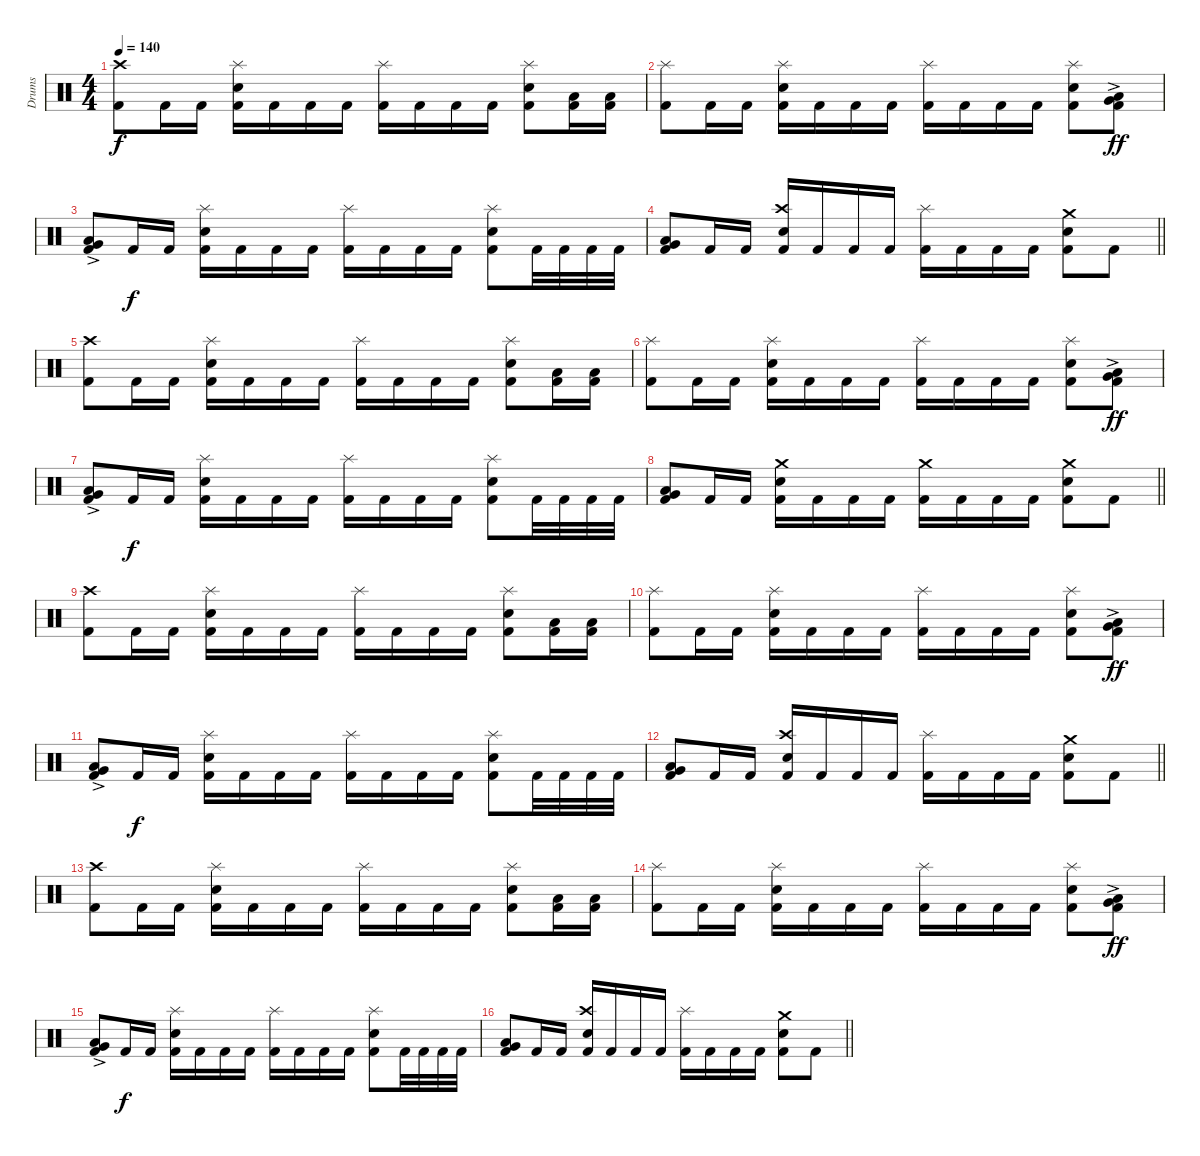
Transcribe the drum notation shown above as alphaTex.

\track ("Drums" "Drums") {instrument percussion}
\staff {score}
\articulation defaults
\ts (4 4)
\section ("" "")
\tempo 140
\clef neutral
\ks c
("Kick (hit) 2" "Crash high (hit)").8{dy f} "Kick (hit) 2".16 "Kick (hit) 2".16 ("Kick (hit) 2" "Snare (hit) 2" "Splash (hit)").16 "Kick (hit) 2".16 "Kick (hit) 2".16 "Kick (hit) 2".16 ("Kick (hit) 2" "Splash (hit)").16 "Kick (hit) 2".16 "Kick (hit) 2".16 "Kick (hit) 2".16 ("Kick (hit) 2" "Snare (hit) 2" "Splash (hit)").8 ("Kick (hit) 2" "Low Tom (hit)").16 ("Kick (hit) 2" "Low Tom (hit)").16 |
("Kick (hit) 2" "Splash (hit)").8 "Kick (hit) 2".16 "Kick (hit) 2".16 ("Kick (hit) 2" "Snare (hit) 2" "Splash (hit)").16 "Kick (hit) 2".16 "Kick (hit) 2".16 "Kick (hit) 2".16 ("Kick (hit) 2" "Splash (hit)").16 "Kick (hit) 2".16 "Kick (hit) 2".16 "Kick (hit) 2".16 ("Kick (hit) 2" "Snare (hit) 2" "Splash (hit)").8 ("Kick (hit) 2" "Low Tom (hit)"{ac} "Very Low Tom (hit)"{ac}).8{dy ff} |
("Kick (hit) 2" "Very Low Tom (hit)"{ac} "Low Floor Tom (hit)"{ac}).8 "Kick (hit) 2".16{dy f} "Kick (hit) 2".16 ("Kick (hit) 2" "Snare (hit) 2" "Splash (hit)").16 "Kick (hit) 2".16 "Kick (hit) 2".16 "Kick (hit) 2".16 ("Kick (hit) 2" "Splash (hit)").16 "Kick (hit) 2".16 "Kick (hit) 2".16 "Kick (hit) 2".16 ("Kick (hit) 2" "Snare (hit) 2" "Splash (hit)").8 "Kick (hit) 2".32 "Kick (hit) 2".32 "Kick (hit) 2".32 "Kick (hit) 2".32 |
\barLineRight lightlight
("Kick (hit) 2" "Very Low Tom (hit)" "Low Floor Tom (hit)").8 "Kick (hit) 2".16 "Kick (hit) 2".16 ("Kick (hit) 2" "Snare (hit) 2" "Crash high (hit)").16 "Kick (hit) 2".16 "Kick (hit) 2".16 "Kick (hit) 2".16 ("Kick (hit) 2" "Splash (hit)").16 "Kick (hit) 2".16 "Kick (hit) 2".16 "Kick (hit) 2".16 ("Kick (hit) 2" "Snare (hit) 2" "Crash medium (hit)").8 "Kick (hit) 2".8 |
\section ("" "")
("Kick (hit) 2" "Crash high (hit)").8 "Kick (hit) 2".16 "Kick (hit) 2".16 ("Kick (hit) 2" "Snare (hit) 2" "Splash (hit)").16 "Kick (hit) 2".16 "Kick (hit) 2".16 "Kick (hit) 2".16 ("Kick (hit) 2" "Splash (hit)").16 "Kick (hit) 2".16 "Kick (hit) 2".16 "Kick (hit) 2".16 ("Kick (hit) 2" "Snare (hit) 2" "Splash (hit)").8 ("Kick (hit) 2" "Low Tom (hit)").16 ("Kick (hit) 2" "Low Tom (hit)").16 |
("Kick (hit) 2" "Splash (hit)").8 "Kick (hit) 2".16 "Kick (hit) 2".16 ("Kick (hit) 2" "Snare (hit) 2" "Splash (hit)").16 "Kick (hit) 2".16 "Kick (hit) 2".16 "Kick (hit) 2".16 ("Kick (hit) 2" "Splash (hit)").16 "Kick (hit) 2".16 "Kick (hit) 2".16 "Kick (hit) 2".16 ("Kick (hit) 2" "Snare (hit) 2" "Splash (hit)").8 ("Kick (hit) 2" "Low Tom (hit)"{ac} "Very Low Tom (hit)"{ac}).8{dy ff} |
("Kick (hit) 2" "Very Low Tom (hit)"{ac} "Low Floor Tom (hit)"{ac}).8 "Kick (hit) 2".16{dy f} "Kick (hit) 2".16 ("Kick (hit) 2" "Snare (hit) 2" "Splash (hit)").16 "Kick (hit) 2".16 "Kick (hit) 2".16 "Kick (hit) 2".16 ("Kick (hit) 2" "Splash (hit)").16 "Kick (hit) 2".16 "Kick (hit) 2".16 "Kick (hit) 2".16 ("Kick (hit) 2" "Snare (hit) 2" "Splash (hit)").8 "Kick (hit) 2".32 "Kick (hit) 2".32 "Kick (hit) 2".32 "Kick (hit) 2".32 |
\barLineRight lightlight
("Kick (hit) 2" "Very Low Tom (hit)" "Low Floor Tom (hit)").8 "Kick (hit) 2".16 "Kick (hit) 2".16 ("Kick (hit) 2" "Snare (hit) 2" "Crash medium (hit)").16 "Kick (hit) 2".16 "Kick (hit) 2".16 "Kick (hit) 2".16 ("Kick (hit) 2" "Crash medium (hit)").16 "Kick (hit) 2".16 "Kick (hit) 2".16 "Kick (hit) 2".16 ("Kick (hit) 2" "Snare (hit) 2" "Crash medium (hit)").8 "Kick (hit) 2".8 |
\section ("" "")
("Kick (hit) 2" "Crash high (hit)").8 "Kick (hit) 2".16 "Kick (hit) 2".16 ("Kick (hit) 2" "Snare (hit) 2" "Splash (hit)").16 "Kick (hit) 2".16 "Kick (hit) 2".16 "Kick (hit) 2".16 ("Kick (hit) 2" "Splash (hit)").16 "Kick (hit) 2".16 "Kick (hit) 2".16 "Kick (hit) 2".16 ("Kick (hit) 2" "Snare (hit) 2" "Splash (hit)").8 ("Kick (hit) 2" "Low Tom (hit)").16 ("Kick (hit) 2" "Low Tom (hit)").16 |
("Kick (hit) 2" "Splash (hit)").8 "Kick (hit) 2".16 "Kick (hit) 2".16 ("Kick (hit) 2" "Snare (hit) 2" "Splash (hit)").16 "Kick (hit) 2".16 "Kick (hit) 2".16 "Kick (hit) 2".16 ("Kick (hit) 2" "Splash (hit)").16 "Kick (hit) 2".16 "Kick (hit) 2".16 "Kick (hit) 2".16 ("Kick (hit) 2" "Snare (hit) 2" "Splash (hit)").8 ("Kick (hit) 2" "Low Tom (hit)"{ac} "Very Low Tom (hit)"{ac}).8{dy ff} |
("Kick (hit) 2" "Very Low Tom (hit)"{ac} "Low Floor Tom (hit)"{ac}).8 "Kick (hit) 2".16{dy f} "Kick (hit) 2".16 ("Kick (hit) 2" "Snare (hit) 2" "Splash (hit)").16 "Kick (hit) 2".16 "Kick (hit) 2".16 "Kick (hit) 2".16 ("Kick (hit) 2" "Splash (hit)").16 "Kick (hit) 2".16 "Kick (hit) 2".16 "Kick (hit) 2".16 ("Kick (hit) 2" "Snare (hit) 2" "Splash (hit)").8 "Kick (hit) 2".32 "Kick (hit) 2".32 "Kick (hit) 2".32 "Kick (hit) 2".32 |
\barLineRight lightlight
("Kick (hit) 2" "Very Low Tom (hit)" "Low Floor Tom (hit)").8 "Kick (hit) 2".16 "Kick (hit) 2".16 ("Kick (hit) 2" "Snare (hit) 2" "Crash high (hit)").16 "Kick (hit) 2".16 "Kick (hit) 2".16 "Kick (hit) 2".16 ("Kick (hit) 2" "Splash (hit)").16 "Kick (hit) 2".16 "Kick (hit) 2".16 "Kick (hit) 2".16 ("Kick (hit) 2" "Snare (hit) 2" "Crash medium (hit)").8 "Kick (hit) 2".8 |
\section ("" "")
("Kick (hit) 2" "Crash high (hit)").8 "Kick (hit) 2".16 "Kick (hit) 2".16 ("Kick (hit) 2" "Snare (hit) 2" "Splash (hit)").16 "Kick (hit) 2".16 "Kick (hit) 2".16 "Kick (hit) 2".16 ("Kick (hit) 2" "Splash (hit)").16 "Kick (hit) 2".16 "Kick (hit) 2".16 "Kick (hit) 2".16 ("Kick (hit) 2" "Snare (hit) 2" "Splash (hit)").8 ("Kick (hit) 2" "Low Tom (hit)").16 ("Kick (hit) 2" "Low Tom (hit)").16 |
("Kick (hit) 2" "Splash (hit)").8 "Kick (hit) 2".16 "Kick (hit) 2".16 ("Kick (hit) 2" "Snare (hit) 2" "Splash (hit)").16 "Kick (hit) 2".16 "Kick (hit) 2".16 "Kick (hit) 2".16 ("Kick (hit) 2" "Splash (hit)").16 "Kick (hit) 2".16 "Kick (hit) 2".16 "Kick (hit) 2".16 ("Kick (hit) 2" "Snare (hit) 2" "Splash (hit)").8 ("Kick (hit) 2" "Low Tom (hit)"{ac} "Very Low Tom (hit)"{ac}).8{dy ff} |
("Kick (hit) 2" "Very Low Tom (hit)"{ac} "Low Floor Tom (hit)"{ac}).8 "Kick (hit) 2".16{dy f} "Kick (hit) 2".16 ("Kick (hit) 2" "Snare (hit) 2" "Splash (hit)").16 "Kick (hit) 2".16 "Kick (hit) 2".16 "Kick (hit) 2".16 ("Kick (hit) 2" "Splash (hit)").16 "Kick (hit) 2".16 "Kick (hit) 2".16 "Kick (hit) 2".16 ("Kick (hit) 2" "Snare (hit) 2" "Splash (hit)").8 "Kick (hit) 2".32 "Kick (hit) 2".32 "Kick (hit) 2".32 "Kick (hit) 2".32 |
\barLineRight lightlight
("Kick (hit) 2" "Very Low Tom (hit)" "Low Floor Tom (hit)").8 "Kick (hit) 2".16 "Kick (hit) 2".16 ("Kick (hit) 2" "Snare (hit) 2" "Crash high (hit)").16 "Kick (hit) 2".16 "Kick (hit) 2".16 "Kick (hit) 2".16 ("Kick (hit) 2" "Splash (hit)").16 "Kick (hit) 2".16 "Kick (hit) 2".16 "Kick (hit) 2".16 ("Kick (hit) 2" "Snare (hit) 2" "Crash medium (hit)").8 "Kick (hit) 2".8
